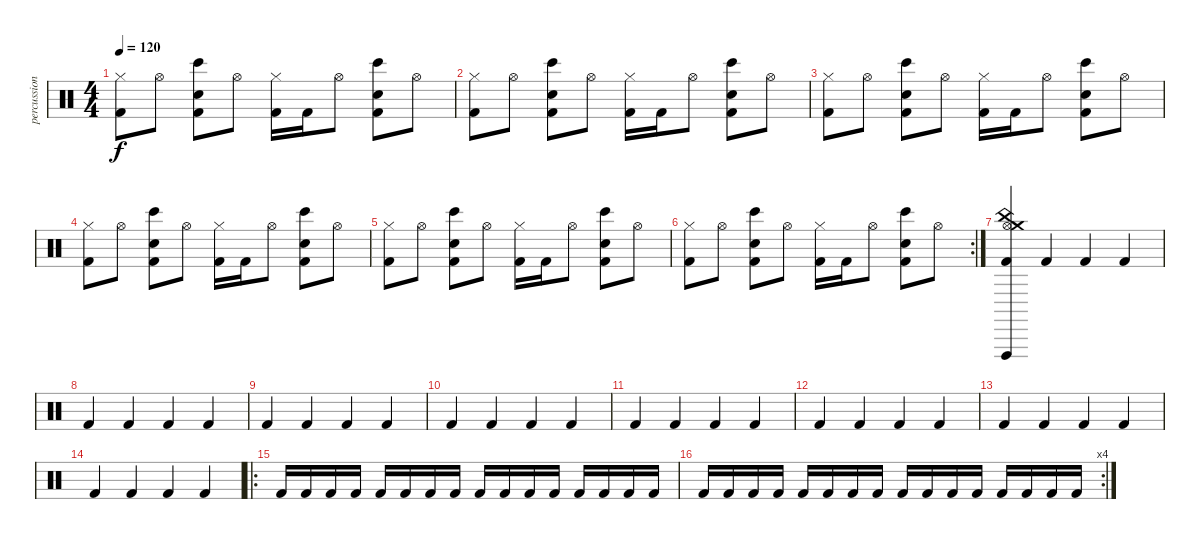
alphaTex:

\track ("percussion" "percussion") {instrument percussion}
\staff {score}
\articulation defaults
\ts (4 4)
\tempo 120
\clef neutral
\ks c
("Hi-Hat (closed)" "Kick (hit) 2").8{dy f} "Hi-Hat (open)".8 ("Hand Clap (hit)" "Bongo High (hit)" "Kick (hit) 2").8 "Hi-Hat (open)".8 ("Hi-Hat (closed)" "Kick (hit) 2").16 "Kick (hit) 2".16 "Hi-Hat (open)".8 ("Hand Clap (hit)" "Bongo High (hit)" "Kick (hit) 2").8 "Hi-Hat (open)".8 |
("Hi-Hat (closed)" "Kick (hit) 2").8 "Hi-Hat (open)".8 ("Hand Clap (hit)" "Bongo High (hit)" "Kick (hit) 2").8 "Hi-Hat (open)".8 ("Hi-Hat (closed)" "Kick (hit) 2").16 "Kick (hit) 2".16 "Hi-Hat (open)".8 ("Hand Clap (hit)" "Bongo High (hit)" "Kick (hit) 2").8 "Hi-Hat (open)".8 |
("Hi-Hat (closed)" "Kick (hit) 2").8 "Hi-Hat (open)".8 ("Hand Clap (hit)" "Bongo High (hit)" "Kick (hit) 2").8 "Hi-Hat (open)".8 ("Hi-Hat (closed)" "Kick (hit) 2").16 "Kick (hit) 2".16 "Hi-Hat (open)".8 ("Hand Clap (hit)" "Bongo High (hit)" "Kick (hit) 2").8 "Hi-Hat (open)".8 |
("Hi-Hat (closed)" "Kick (hit) 2").8 "Hi-Hat (open)".8 ("Hand Clap (hit)" "Bongo High (hit)" "Kick (hit) 2").8 "Hi-Hat (open)".8 ("Hi-Hat (closed)" "Kick (hit) 2").16 "Kick (hit) 2".16 "Hi-Hat (open)".8 ("Hand Clap (hit)" "Bongo High (hit)" "Kick (hit) 2").8 "Hi-Hat (open)".8 |
("Hi-Hat (closed)" "Kick (hit) 2").8 "Hi-Hat (open)".8 ("Hand Clap (hit)" "Bongo High (hit)" "Kick (hit) 2").8 "Hi-Hat (open)".8 ("Hi-Hat (closed)" "Kick (hit) 2").16 "Kick (hit) 2".16 "Hi-Hat (open)".8 ("Hand Clap (hit)" "Bongo High (hit)" "Kick (hit) 2").8 "Hi-Hat (open)".8 |
\rc 2
("Hi-Hat (closed)" "Kick (hit) 2").8 "Hi-Hat (open)".8 ("Hand Clap (hit)" "Bongo High (hit)" "Kick (hit) 2").8 "Hi-Hat (open)".8 ("Hi-Hat (closed)" "Kick (hit) 2").16 "Kick (hit) 2".16 "Hi-Hat (open)".8 ("Hand Clap (hit)" "Bongo High (hit)" "Kick (hit) 2").8 "Hi-Hat (open)".8 |
("Hi-Hat (open)" "China (hit)" "Crash medium (hit)" "Vibraslap (hit)" "Kick (hit) 2").4 "Kick (hit) 2".4 "Kick (hit) 2".4 "Kick (hit) 2".4 |
"Kick (hit) 2".4 "Kick (hit) 2".4 "Kick (hit) 2".4 "Kick (hit) 2".4 |
"Kick (hit) 2".4 "Kick (hit) 2".4 "Kick (hit) 2".4 "Kick (hit) 2".4 |
"Kick (hit) 2".4 "Kick (hit) 2".4 "Kick (hit) 2".4 "Kick (hit) 2".4 |
"Kick (hit) 2".4 "Kick (hit) 2".4 "Kick (hit) 2".4 "Kick (hit) 2".4 |
"Kick (hit) 2".4 "Kick (hit) 2".4 "Kick (hit) 2".4 "Kick (hit) 2".4 |
"Kick (hit) 2".4 "Kick (hit) 2".4 "Kick (hit) 2".4 "Kick (hit) 2".4 |
"Kick (hit) 2".4 "Kick (hit) 2".4 "Kick (hit) 2".4 "Kick (hit) 2".4 |
\ro "Kick (hit) 2".16 "Kick (hit) 2".16 "Kick (hit) 2".16 "Kick (hit) 2".16 "Kick (hit) 2".16 "Kick (hit) 2".16 "Kick (hit) 2".16 "Kick (hit) 2".16 "Kick (hit) 2".16 "Kick (hit) 2".16 "Kick (hit) 2".16 "Kick (hit) 2".16 "Kick (hit) 2".16 "Kick (hit) 2".16 "Kick (hit) 2".16 "Kick (hit) 2".16
|
\rc 4 "Kick (hit) 2".16 "Kick (hit) 2".16 "Kick (hit) 2".16 "Kick (hit) 2".16 "Kick (hit) 2".16 "Kick (hit) 2".16 "Kick (hit) 2".16 "Kick (hit) 2".16 "Kick (hit) 2".16 "Kick (hit) 2".16 "Kick (hit) 2".16 "Kick (hit) 2".16 "Kick (hit) 2".16 "Kick (hit) 2".16 "Kick (hit) 2".16 "Kick (hit) 2".16
